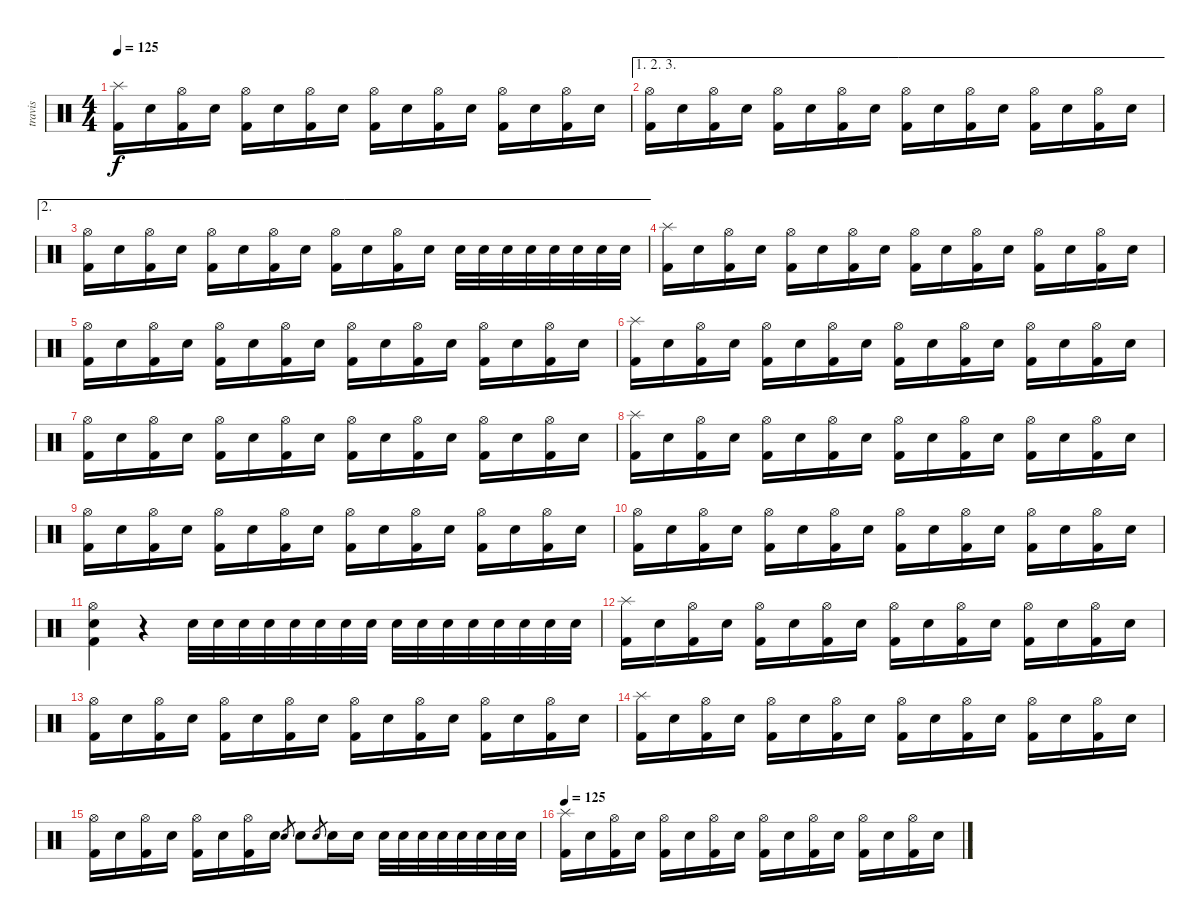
\track ("travis" "travis") {instrument percussion}
\staff {score}
\articulation defaults
\ts (4 4)
\tempo 125
\clef neutral
\ks c
("Splash (hit)" "Kick (hit) 2").16{dy f} "Electric Snare (hit)".16 ("Hi-Hat (open)" "Kick (hit) 2").16 "Electric Snare (hit)".16 ("Hi-Hat (open)" "Kick (hit) 2").16 "Electric Snare (hit)".16 ("Hi-Hat (open)" "Kick (hit) 2").16 "Electric Snare (hit)".16 ("Hi-Hat (open)" "Kick (hit) 2").16 "Electric Snare (hit)".16 ("Hi-Hat (open)" "Kick (hit) 2").16 "Electric Snare (hit)".16 ("Hi-Hat (open)" "Kick (hit) 2").16 "Electric Snare (hit)".16 ("Hi-Hat (open)" "Kick (hit) 2").16 "Electric Snare (hit)".16 |
\ae (1 2 3)
("Hi-Hat (open)" "Kick (hit) 2").16 "Electric Snare (hit)".16 ("Hi-Hat (open)" "Kick (hit) 2").16 "Electric Snare (hit)".16 ("Hi-Hat (open)" "Kick (hit) 2").16 "Electric Snare (hit)".16 ("Hi-Hat (open)" "Kick (hit) 2").16 "Electric Snare (hit)".16 ("Hi-Hat (open)" "Kick (hit) 2").16 "Electric Snare (hit)".16 ("Hi-Hat (open)" "Kick (hit) 2").16 "Electric Snare (hit)".16 ("Hi-Hat (open)" "Kick (hit) 2").16 "Electric Snare (hit)".16 ("Hi-Hat (open)" "Kick (hit) 2").16 "Electric Snare (hit)".16 |
\ae 2
("Hi-Hat (open)" "Kick (hit) 2").16 "Electric Snare (hit)".16 ("Hi-Hat (open)" "Kick (hit) 2").16 "Electric Snare (hit)".16 ("Hi-Hat (open)" "Kick (hit) 2").16 "Electric Snare (hit)".16 ("Hi-Hat (open)" "Kick (hit) 2").16 "Electric Snare (hit)".16 ("Hi-Hat (open)" "Kick (hit) 2").16 "Electric Snare (hit)".16 ("Hi-Hat (open)" "Kick (hit) 2").16 "Electric Snare (hit)".16 "Electric Snare (hit)".32 "Electric Snare (hit)".32 "Electric Snare (hit)".32 "Electric Snare (hit)".32 "Electric Snare (hit)".32 "Electric Snare (hit)".32 "Electric Snare (hit)".32 "Electric Snare (hit)".32 |
("Splash (hit)" "Kick (hit) 2").16 "Electric Snare (hit)".16 ("Hi-Hat (open)" "Kick (hit) 2").16 "Electric Snare (hit)".16 ("Hi-Hat (open)" "Kick (hit) 2").16 "Electric Snare (hit)".16 ("Hi-Hat (open)" "Kick (hit) 2").16 "Electric Snare (hit)".16 ("Hi-Hat (open)" "Kick (hit) 2").16 "Electric Snare (hit)".16 ("Hi-Hat (open)" "Kick (hit) 2").16 "Electric Snare (hit)".16 ("Hi-Hat (open)" "Kick (hit) 2").16 "Electric Snare (hit)".16 ("Hi-Hat (open)" "Kick (hit) 2").16 "Electric Snare (hit)".16 |
("Hi-Hat (open)" "Kick (hit) 2").16 "Electric Snare (hit)".16 ("Hi-Hat (open)" "Kick (hit) 2").16 "Electric Snare (hit)".16 ("Hi-Hat (open)" "Kick (hit) 2").16 "Electric Snare (hit)".16 ("Hi-Hat (open)" "Kick (hit) 2").16 "Electric Snare (hit)".16 ("Hi-Hat (open)" "Kick (hit) 2").16 "Electric Snare (hit)".16 ("Hi-Hat (open)" "Kick (hit) 2").16 "Electric Snare (hit)".16 ("Hi-Hat (open)" "Kick (hit) 2").16 "Electric Snare (hit)".16 ("Hi-Hat (open)" "Kick (hit) 2").16 "Electric Snare (hit)".16 |
("Splash (hit)" "Kick (hit) 2").16 "Electric Snare (hit)".16 ("Hi-Hat (open)" "Kick (hit) 2").16 "Electric Snare (hit)".16 ("Hi-Hat (open)" "Kick (hit) 2").16 "Electric Snare (hit)".16 ("Hi-Hat (open)" "Kick (hit) 2").16 "Electric Snare (hit)".16 ("Hi-Hat (open)" "Kick (hit) 2").16 "Electric Snare (hit)".16 ("Hi-Hat (open)" "Kick (hit) 2").16 "Electric Snare (hit)".16 ("Hi-Hat (open)" "Kick (hit) 2").16 "Electric Snare (hit)".16 ("Hi-Hat (open)" "Kick (hit) 2").16 "Electric Snare (hit)".16 |
("Hi-Hat (open)" "Kick (hit) 2").16 "Electric Snare (hit)".16 ("Hi-Hat (open)" "Kick (hit) 2").16 "Electric Snare (hit)".16 ("Hi-Hat (open)" "Kick (hit) 2").16 "Electric Snare (hit)".16 ("Hi-Hat (open)" "Kick (hit) 2").16 "Electric Snare (hit)".16 ("Hi-Hat (open)" "Kick (hit) 2").16 "Electric Snare (hit)".16 ("Hi-Hat (open)" "Kick (hit) 2").16 "Electric Snare (hit)".16 ("Hi-Hat (open)" "Kick (hit) 2").16 "Electric Snare (hit)".16 ("Hi-Hat (open)" "Kick (hit) 2").16 "Electric Snare (hit)".16 |
("Splash (hit)" "Kick (hit) 2").16 "Electric Snare (hit)".16 ("Hi-Hat (open)" "Kick (hit) 2").16 "Electric Snare (hit)".16 ("Hi-Hat (open)" "Kick (hit) 2").16 "Electric Snare (hit)".16 ("Hi-Hat (open)" "Kick (hit) 2").16 "Electric Snare (hit)".16 ("Hi-Hat (open)" "Kick (hit) 2").16 "Electric Snare (hit)".16 ("Hi-Hat (open)" "Kick (hit) 2").16 "Electric Snare (hit)".16 ("Hi-Hat (open)" "Kick (hit) 2").16 "Electric Snare (hit)".16 ("Hi-Hat (open)" "Kick (hit) 2").16 "Electric Snare (hit)".16 |
("Hi-Hat (open)" "Kick (hit) 2").16 "Electric Snare (hit)".16 ("Hi-Hat (open)" "Kick (hit) 2").16 "Electric Snare (hit)".16 ("Hi-Hat (open)" "Kick (hit) 2").16 "Electric Snare (hit)".16 ("Hi-Hat (open)" "Kick (hit) 2").16 "Electric Snare (hit)".16 ("Hi-Hat (open)" "Kick (hit) 2").16 "Electric Snare (hit)".16 ("Hi-Hat (open)" "Kick (hit) 2").16 "Electric Snare (hit)".16 ("Hi-Hat (open)" "Kick (hit) 2").16 "Electric Snare (hit)".16 ("Hi-Hat (open)" "Kick (hit) 2").16 "Electric Snare (hit)".16 |
("Hi-Hat (open)" "Kick (hit) 2").16 "Electric Snare (hit)".16 ("Hi-Hat (open)" "Kick (hit) 2").16 "Electric Snare (hit)".16 ("Hi-Hat (open)" "Kick (hit) 2").16 "Electric Snare (hit)".16 ("Hi-Hat (open)" "Kick (hit) 2").16 "Electric Snare (hit)".16 ("Hi-Hat (open)" "Kick (hit) 2").16 "Electric Snare (hit)".16 ("Hi-Hat (open)" "Kick (hit) 2").16 "Electric Snare (hit)".16 ("Hi-Hat (open)" "Kick (hit) 2").16 "Electric Snare (hit)".16 ("Hi-Hat (open)" "Kick (hit) 2").16 "Electric Snare (hit)".16 |
("Hi-Hat (open)" "Electric Snare (hit)" "Kick (hit) 2").4 r.4 "Electric Snare (hit)".32 "Electric Snare (hit)".32 "Electric Snare (hit)".32 "Electric Snare (hit)".32 "Electric Snare (hit)".32 "Electric Snare (hit)".32 "Electric Snare (hit)".32 "Electric Snare (hit)".32 "Electric Snare (hit)".32 "Electric Snare (hit)".32 "Electric Snare (hit)".32 "Electric Snare (hit)".32 "Electric Snare (hit)".32 "Electric Snare (hit)".32 "Electric Snare (hit)".32 "Electric Snare (hit)".32 |
("Splash (hit)" "Kick (hit) 2").16 "Electric Snare (hit)".16 ("Hi-Hat (open)" "Kick (hit) 2").16 "Electric Snare (hit)".16 ("Hi-Hat (open)" "Kick (hit) 2").16 "Electric Snare (hit)".16 ("Hi-Hat (open)" "Kick (hit) 2").16 "Electric Snare (hit)".16 ("Hi-Hat (open)" "Kick (hit) 2").16 "Electric Snare (hit)".16 ("Hi-Hat (open)" "Kick (hit) 2").16 "Electric Snare (hit)".16 ("Hi-Hat (open)" "Kick (hit) 2").16 "Electric Snare (hit)".16 ("Hi-Hat (open)" "Kick (hit) 2").16 "Electric Snare (hit)".16 |
("Hi-Hat (open)" "Kick (hit) 2").16 "Electric Snare (hit)".16 ("Hi-Hat (open)" "Kick (hit) 2").16 "Electric Snare (hit)".16 ("Hi-Hat (open)" "Kick (hit) 2").16 "Electric Snare (hit)".16 ("Hi-Hat (open)" "Kick (hit) 2").16 "Electric Snare (hit)".16 ("Hi-Hat (open)" "Kick (hit) 2").16 "Electric Snare (hit)".16 ("Hi-Hat (open)" "Kick (hit) 2").16 "Electric Snare (hit)".16 ("Hi-Hat (open)" "Kick (hit) 2").16 "Electric Snare (hit)".16 ("Hi-Hat (open)" "Kick (hit) 2").16 "Electric Snare (hit)".16 |
("Splash (hit)" "Kick (hit) 2").16 "Electric Snare (hit)".16 ("Hi-Hat (open)" "Kick (hit) 2").16 "Electric Snare (hit)".16 ("Hi-Hat (open)" "Kick (hit) 2").16 "Electric Snare (hit)".16 ("Hi-Hat (open)" "Kick (hit) 2").16 "Electric Snare (hit)".16 ("Hi-Hat (open)" "Kick (hit) 2").16 "Electric Snare (hit)".16 ("Hi-Hat (open)" "Kick (hit) 2").16 "Electric Snare (hit)".16 ("Hi-Hat (open)" "Kick (hit) 2").16 "Electric Snare (hit)".16 ("Hi-Hat (open)" "Kick (hit) 2").16 "Electric Snare (hit)".16 |
("Hi-Hat (open)" "Kick (hit) 2").16 "Electric Snare (hit)".16 ("Hi-Hat (open)" "Kick (hit) 2").16 "Electric Snare (hit)".16 ("Hi-Hat (open)" "Kick (hit) 2").16 "Electric Snare (hit)".16 ("Hi-Hat (open)" "Kick (hit) 2").16 "Electric Snare (hit)".16 "Electric Snare (hit)".8{gr} "Electric Snare (hit)".8 "Electric Snare (hit)".8{gr} "Electric Snare (hit)".16 "Electric Snare (hit)".16 "Electric Snare (hit)".32 "Electric Snare (hit)".32 "Electric Snare (hit)".32 "Electric Snare (hit)".32 "Electric Snare (hit)".32 "Electric Snare (hit)".32 "Electric Snare (hit)".32 "Electric Snare (hit)".32 |
\tempo 125
("Splash (hit)" "Kick (hit) 2").16 "Electric Snare (hit)".16 ("Hi-Hat (open)" "Kick (hit) 2").16 "Electric Snare (hit)".16 ("Hi-Hat (open)" "Kick (hit) 2").16 "Electric Snare (hit)".16 ("Hi-Hat (open)" "Kick (hit) 2").16 "Electric Snare (hit)".16 ("Hi-Hat (open)" "Kick (hit) 2").16 "Electric Snare (hit)".16 ("Hi-Hat (open)" "Kick (hit) 2").16 "Electric Snare (hit)".16 ("Hi-Hat (open)" "Kick (hit) 2").16 "Electric Snare (hit)".16 ("Hi-Hat (open)" "Kick (hit) 2").16 "Electric Snare (hit)".16
